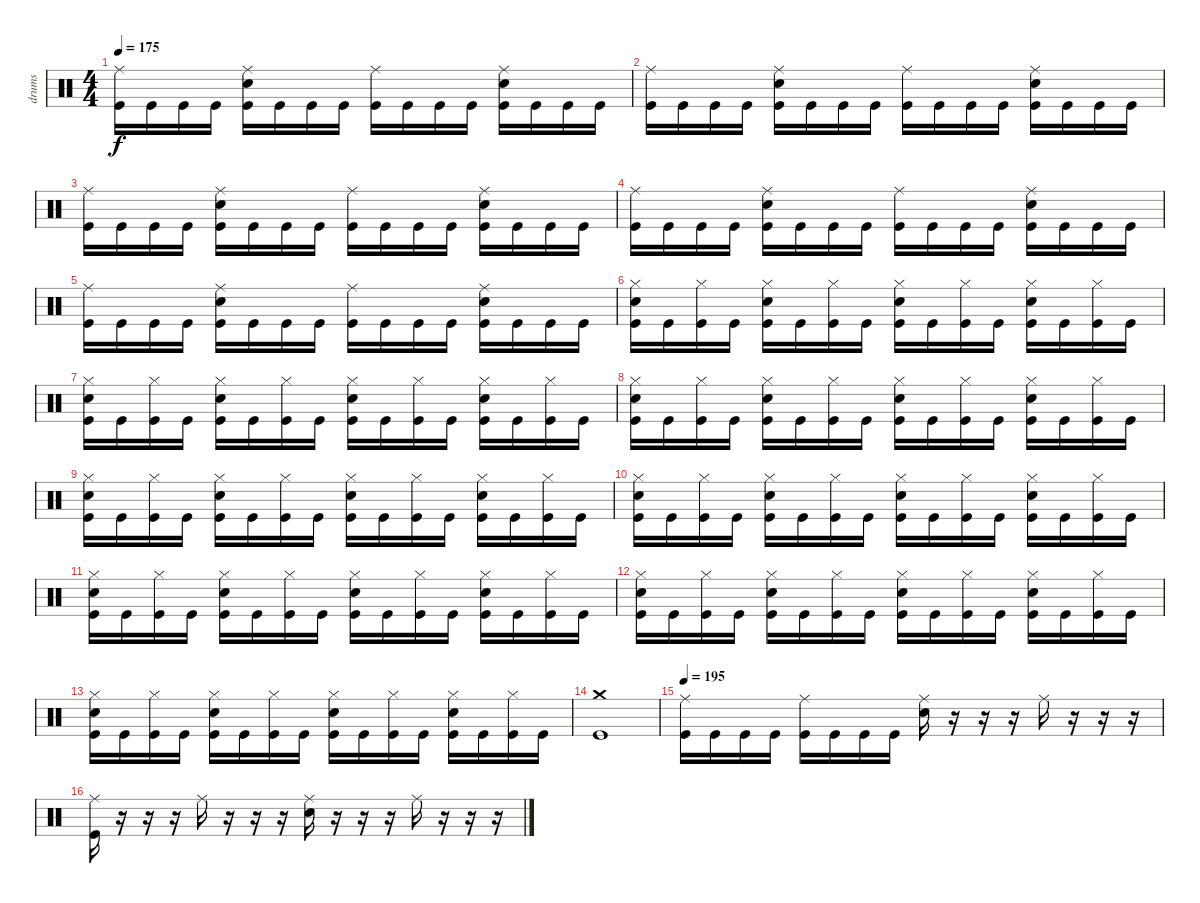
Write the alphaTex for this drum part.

\track ("drums" "drums") {instrument percussion}
\staff {score}
\articulation defaults
\ts (4 4)
\tempo 175
\clef neutral
\ks c
("Ride (middle)" "Kick (hit)").16{dy f} "Kick (hit)".16 "Kick (hit)".16 "Kick (hit)".16 ("Ride (middle)" "Electric Snare (hit)" "Kick (hit)").16 "Kick (hit)".16 "Kick (hit)".16 "Kick (hit)".16 ("Ride (middle)" "Kick (hit)").16 "Kick (hit)".16 "Kick (hit)".16 "Kick (hit)".16 ("Ride (middle)" "Electric Snare (hit)" "Kick (hit)").16 "Kick (hit)".16 "Kick (hit)".16 "Kick (hit)".16 |
("Ride (middle)" "Kick (hit)").16 "Kick (hit)".16 "Kick (hit)".16 "Kick (hit)".16 ("Ride (middle)" "Electric Snare (hit)" "Kick (hit)").16 "Kick (hit)".16 "Kick (hit)".16 "Kick (hit)".16 ("Ride (middle)" "Kick (hit)").16 "Kick (hit)".16 "Kick (hit)".16 "Kick (hit)".16 ("Ride (middle)" "Electric Snare (hit)" "Kick (hit)").16 "Kick (hit)".16 "Kick (hit)".16 "Kick (hit)".16 |
("Ride (middle)" "Kick (hit)").16 "Kick (hit)".16 "Kick (hit)".16 "Kick (hit)".16 ("Ride (middle)" "Electric Snare (hit)" "Kick (hit)").16 "Kick (hit)".16 "Kick (hit)".16 "Kick (hit)".16 ("Ride (middle)" "Kick (hit)").16 "Kick (hit)".16 "Kick (hit)".16 "Kick (hit)".16 ("Ride (middle)" "Electric Snare (hit)" "Kick (hit)").16 "Kick (hit)".16 "Kick (hit)".16 "Kick (hit)".16 |
("Ride (middle)" "Kick (hit)").16 "Kick (hit)".16 "Kick (hit)".16 "Kick (hit)".16 ("Ride (middle)" "Electric Snare (hit)" "Kick (hit)").16 "Kick (hit)".16 "Kick (hit)".16 "Kick (hit)".16 ("Ride (middle)" "Kick (hit)").16 "Kick (hit)".16 "Kick (hit)".16 "Kick (hit)".16 ("Ride (middle)" "Electric Snare (hit)" "Kick (hit)").16 "Kick (hit)".16 "Kick (hit)".16 "Kick (hit)".16 |
("Ride (middle)" "Kick (hit)").16 "Kick (hit)".16 "Kick (hit)".16 "Kick (hit)".16 ("Ride (middle)" "Electric Snare (hit)" "Kick (hit)").16 "Kick (hit)".16 "Kick (hit)".16 "Kick (hit)".16 ("Ride (middle)" "Kick (hit)").16 "Kick (hit)".16 "Kick (hit)".16 "Kick (hit)".16 ("Ride (middle)" "Electric Snare (hit)" "Kick (hit)").16 "Kick (hit)".16 "Kick (hit)".16 "Kick (hit)".16 |
("Hi-Hat (closed)" "Electric Snare (hit)" "Kick (hit)").16 "Kick (hit)".16 ("Hi-Hat (closed)" "Kick (hit)").16 "Kick (hit)".16 ("Hi-Hat (closed)" "Electric Snare (hit)" "Kick (hit)").16 "Kick (hit)".16 ("Hi-Hat (closed)" "Kick (hit)").16 "Kick (hit)".16 ("Hi-Hat (closed)" "Electric Snare (hit)" "Kick (hit)").16 "Kick (hit)".16 ("Hi-Hat (closed)" "Kick (hit)").16 "Kick (hit)".16 ("Hi-Hat (closed)" "Electric Snare (hit)" "Kick (hit)").16 "Kick (hit)".16 ("Hi-Hat (closed)" "Kick (hit)").16 "Kick (hit)".16 |
("Hi-Hat (closed)" "Electric Snare (hit)" "Kick (hit)").16 "Kick (hit)".16 ("Hi-Hat (closed)" "Kick (hit)").16 "Kick (hit)".16 ("Hi-Hat (closed)" "Electric Snare (hit)" "Kick (hit)").16 "Kick (hit)".16 ("Hi-Hat (closed)" "Kick (hit)").16 "Kick (hit)".16 ("Hi-Hat (closed)" "Electric Snare (hit)" "Kick (hit)").16 "Kick (hit)".16 ("Hi-Hat (closed)" "Kick (hit)").16 "Kick (hit)".16 ("Hi-Hat (closed)" "Electric Snare (hit)" "Kick (hit)").16 "Kick (hit)".16 ("Hi-Hat (closed)" "Kick (hit)").16 "Kick (hit)".16 |
("Hi-Hat (closed)" "Electric Snare (hit)" "Kick (hit)").16 "Kick (hit)".16 ("Hi-Hat (closed)" "Kick (hit)").16 "Kick (hit)".16 ("Hi-Hat (closed)" "Electric Snare (hit)" "Kick (hit)").16 "Kick (hit)".16 ("Hi-Hat (closed)" "Kick (hit)").16 "Kick (hit)".16 ("Hi-Hat (closed)" "Electric Snare (hit)" "Kick (hit)").16 "Kick (hit)".16 ("Hi-Hat (closed)" "Kick (hit)").16 "Kick (hit)".16 ("Hi-Hat (closed)" "Electric Snare (hit)" "Kick (hit)").16 "Kick (hit)".16 ("Hi-Hat (closed)" "Kick (hit)").16 "Kick (hit)".16 |
("Hi-Hat (closed)" "Electric Snare (hit)" "Kick (hit)").16 "Kick (hit)".16 ("Hi-Hat (closed)" "Kick (hit)").16 "Kick (hit)".16 ("Hi-Hat (closed)" "Electric Snare (hit)" "Kick (hit)").16 "Kick (hit)".16 ("Hi-Hat (closed)" "Kick (hit)").16 "Kick (hit)".16 ("Hi-Hat (closed)" "Electric Snare (hit)" "Kick (hit)").16 "Kick (hit)".16 ("Hi-Hat (closed)" "Kick (hit)").16 "Kick (hit)".16 ("Hi-Hat (closed)" "Electric Snare (hit)" "Kick (hit)").16 "Kick (hit)".16 ("Hi-Hat (closed)" "Kick (hit)").16 "Kick (hit)".16 |
("Hi-Hat (closed)" "Electric Snare (hit)" "Kick (hit)").16 "Kick (hit)".16 ("Hi-Hat (closed)" "Kick (hit)").16 "Kick (hit)".16 ("Hi-Hat (closed)" "Electric Snare (hit)" "Kick (hit)").16 "Kick (hit)".16 ("Hi-Hat (closed)" "Kick (hit)").16 "Kick (hit)".16 ("Hi-Hat (closed)" "Electric Snare (hit)" "Kick (hit)").16 "Kick (hit)".16 ("Hi-Hat (closed)" "Kick (hit)").16 "Kick (hit)".16 ("Hi-Hat (closed)" "Electric Snare (hit)" "Kick (hit)").16 "Kick (hit)".16 ("Hi-Hat (closed)" "Kick (hit)").16 "Kick (hit)".16 |
("Hi-Hat (closed)" "Electric Snare (hit)" "Kick (hit)").16 "Kick (hit)".16 ("Hi-Hat (closed)" "Kick (hit)").16 "Kick (hit)".16 ("Hi-Hat (closed)" "Electric Snare (hit)" "Kick (hit)").16 "Kick (hit)".16 ("Hi-Hat (closed)" "Kick (hit)").16 "Kick (hit)".16 ("Hi-Hat (closed)" "Electric Snare (hit)" "Kick (hit)").16 "Kick (hit)".16 ("Hi-Hat (closed)" "Kick (hit)").16 "Kick (hit)".16 ("Hi-Hat (closed)" "Electric Snare (hit)" "Kick (hit)").16 "Kick (hit)".16 ("Hi-Hat (closed)" "Kick (hit)").16 "Kick (hit)".16 |
("Hi-Hat (closed)" "Electric Snare (hit)" "Kick (hit)").16 "Kick (hit)".16 ("Hi-Hat (closed)" "Kick (hit)").16 "Kick (hit)".16 ("Hi-Hat (closed)" "Electric Snare (hit)" "Kick (hit)").16 "Kick (hit)".16 ("Hi-Hat (closed)" "Kick (hit)").16 "Kick (hit)".16 ("Hi-Hat (closed)" "Electric Snare (hit)" "Kick (hit)").16 "Kick (hit)".16 ("Hi-Hat (closed)" "Kick (hit)").16 "Kick (hit)".16 ("Hi-Hat (closed)" "Electric Snare (hit)" "Kick (hit)").16 "Kick (hit)".16 ("Hi-Hat (closed)" "Kick (hit)").16 "Kick (hit)".16 |
("Hi-Hat (closed)" "Electric Snare (hit)" "Kick (hit)").16 "Kick (hit)".16 ("Hi-Hat (closed)" "Kick (hit)").16 "Kick (hit)".16 ("Hi-Hat (closed)" "Electric Snare (hit)" "Kick (hit)").16 "Kick (hit)".16 ("Hi-Hat (closed)" "Kick (hit)").16 "Kick (hit)".16 ("Hi-Hat (closed)" "Electric Snare (hit)" "Kick (hit)").16 "Kick (hit)".16 ("Hi-Hat (closed)" "Kick (hit)").16 "Kick (hit)".16 ("Hi-Hat (closed)" "Electric Snare (hit)" "Kick (hit)").16 "Kick (hit)".16 ("Hi-Hat (closed)" "Kick (hit)").16 "Kick (hit)".16 |
("Crash medium (hit)" "Kick (hit)").1 |
\tempo 195
("Ride (middle)" "Kick (hit)").16 "Kick (hit)".16 "Kick (hit)".16 "Kick (hit)".16 ("Ride (middle)" "Kick (hit)").16 "Kick (hit)".16 "Kick (hit)".16 "Kick (hit)".16 ("Ride (middle)" "Electric Snare (hit)").16 r.16 r.16 r.16 "Ride (middle)".16 r.16 r.16 r.16 |
("Ride (middle)" "Kick (hit)").16 r.16 r.16 r.16 "Ride (middle)".16 r.16 r.16 r.16 ("Ride (middle)" "Electric Snare (hit)").16 r.16 r.16 r.16 "Ride (middle)".16 r.16 r.16 r.16
